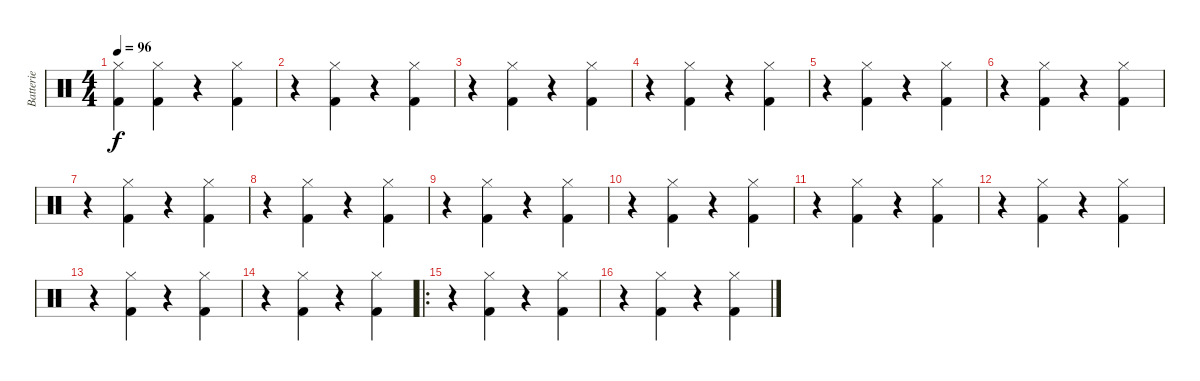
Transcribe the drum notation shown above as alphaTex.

\track ("Batterie" "Batterie") {instrument percussion}
\staff {score}
\articulation defaults
\ts (4 4)
\tempo 96
\clef neutral
\ks c
("Hi-Hat (closed)" "Kick (hit) 2").4{dy f} ("Hi-Hat (closed)" "Kick (hit) 2").4 r.4 ("Hi-Hat (closed)" "Kick (hit) 2").4 |
r.4 ("Hi-Hat (closed)" "Kick (hit) 2").4 r.4 ("Hi-Hat (closed)" "Kick (hit) 2").4 |
r.4 ("Hi-Hat (closed)" "Kick (hit) 2").4 r.4 ("Hi-Hat (closed)" "Kick (hit) 2").4 |
r.4 ("Hi-Hat (closed)" "Kick (hit) 2").4 r.4 ("Hi-Hat (closed)" "Kick (hit) 2").4 |
r.4 ("Hi-Hat (closed)" "Kick (hit) 2").4 r.4 ("Hi-Hat (closed)" "Kick (hit) 2").4 |
r.4 ("Hi-Hat (closed)" "Kick (hit) 2").4 r.4 ("Hi-Hat (closed)" "Kick (hit) 2").4 |
r.4 ("Hi-Hat (closed)" "Kick (hit) 2").4 r.4 ("Hi-Hat (closed)" "Kick (hit) 2").4 |
r.4 ("Hi-Hat (closed)" "Kick (hit) 2").4 r.4 ("Hi-Hat (closed)" "Kick (hit) 2").4 |
r.4 ("Hi-Hat (closed)" "Kick (hit) 2").4 r.4 ("Hi-Hat (closed)" "Kick (hit) 2").4 |
r.4 ("Hi-Hat (closed)" "Kick (hit) 2").4 r.4 ("Hi-Hat (closed)" "Kick (hit) 2").4 |
r.4 ("Hi-Hat (closed)" "Kick (hit) 2").4 r.4 ("Hi-Hat (closed)" "Kick (hit) 2").4 |
r.4 ("Hi-Hat (closed)" "Kick (hit) 2").4 r.4 ("Hi-Hat (closed)" "Kick (hit) 2").4 |
r.4 ("Hi-Hat (closed)" "Kick (hit) 2").4 r.4 ("Hi-Hat (closed)" "Kick (hit) 2").4 |
r.4 ("Hi-Hat (closed)" "Kick (hit) 2").4 r.4 ("Hi-Hat (closed)" "Kick (hit) 2").4 |
\ro
r.4 ("Hi-Hat (closed)" "Kick (hit) 2").4 r.4 ("Hi-Hat (closed)" "Kick (hit) 2").4 |
r.4 ("Hi-Hat (closed)" "Kick (hit) 2").4 r.4 ("Hi-Hat (closed)" "Kick (hit) 2").4
